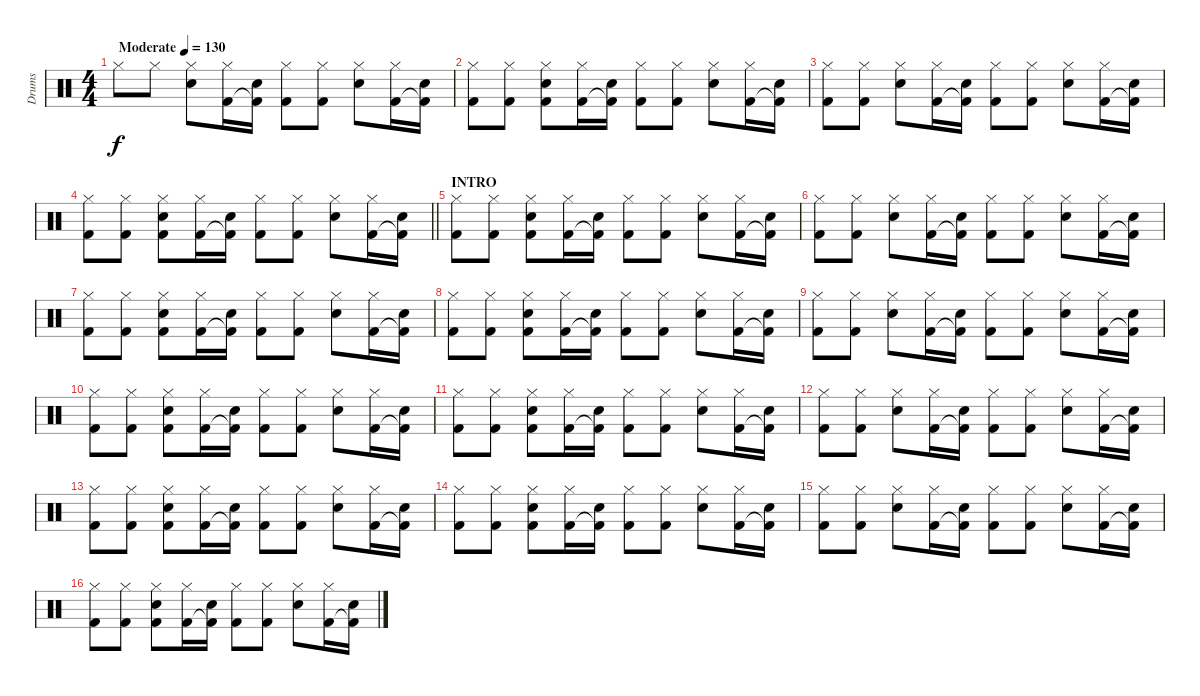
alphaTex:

\track ("Drums" "Drums") {instrument percussion}
\staff {score}
\articulation defaults
\ts (4 4)
\tempo (130 "Moderate")
\clef neutral
\ks c "Hi-Hat (closed)".8{dy f} "Hi-Hat (closed)".8
("Electric Snare (hit)" "Hi-Hat (closed)").8 ("Kick (hit) 2" "Hi-Hat (closed)").16 ("Kick (hit) 2"{t} "Electric Snare (hit)").16 ("Kick (hit) 2" "Hi-Hat (closed)").8 ("Kick (hit) 2" "Hi-Hat (closed)").8 ("Electric Snare (hit)" "Hi-Hat (closed)").8 ("Kick (hit) 2" "Hi-Hat (closed)").16 ("Kick (hit) 2"{t} "Electric Snare (hit)").16 |
("Kick (hit) 2" "Hi-Hat (closed)").8 ("Kick (hit) 2" "Hi-Hat (closed)").8 ("Kick (hit) 2" "Electric Snare (hit)" "Hi-Hat (closed)").8 ("Kick (hit) 2" "Hi-Hat (closed)").16 ("Kick (hit) 2"{t} "Electric Snare (hit)").16 ("Kick (hit) 2" "Hi-Hat (closed)").8 ("Kick (hit) 2" "Hi-Hat (closed)").8 ("Electric Snare (hit)" "Hi-Hat (closed)").8 ("Kick (hit) 2" "Hi-Hat (closed)").16 ("Kick (hit) 2"{t} "Electric Snare (hit)").16 |
("Kick (hit) 2" "Hi-Hat (closed)").8 ("Kick (hit) 2" "Hi-Hat (closed)").8 ("Electric Snare (hit)" "Hi-Hat (closed)").8 ("Kick (hit) 2" "Hi-Hat (closed)").16 ("Kick (hit) 2"{t} "Electric Snare (hit)").16 ("Kick (hit) 2" "Hi-Hat (closed)").8 ("Kick (hit) 2" "Hi-Hat (closed)").8 ("Electric Snare (hit)" "Hi-Hat (closed)").8 ("Kick (hit) 2" "Hi-Hat (closed)").16 ("Kick (hit) 2"{t} "Electric Snare (hit)").16 |
\barLineRight lightlight
("Kick (hit) 2" "Hi-Hat (closed)").8 ("Kick (hit) 2" "Hi-Hat (closed)").8 ("Kick (hit) 2" "Electric Snare (hit)" "Hi-Hat (closed)").8 ("Kick (hit) 2" "Hi-Hat (closed)").16 ("Kick (hit) 2"{t} "Electric Snare (hit)").16 ("Kick (hit) 2" "Hi-Hat (closed)").8 ("Kick (hit) 2" "Hi-Hat (closed)").8 ("Electric Snare (hit)" "Hi-Hat (closed)").8 ("Kick (hit) 2" "Hi-Hat (closed)").16 ("Kick (hit) 2"{t} "Electric Snare (hit)").16 |
\section ("" "INTRO")
("Kick (hit) 2" "Hi-Hat (closed)").8 ("Kick (hit) 2" "Hi-Hat (closed)").8 ("Kick (hit) 2" "Electric Snare (hit)" "Hi-Hat (closed)").8 ("Kick (hit) 2" "Hi-Hat (closed)").16 ("Kick (hit) 2"{t} "Electric Snare (hit)").16 ("Kick (hit) 2" "Hi-Hat (closed)").8 ("Kick (hit) 2" "Hi-Hat (closed)").8 ("Electric Snare (hit)" "Hi-Hat (closed)").8 ("Kick (hit) 2" "Hi-Hat (closed)").16 ("Kick (hit) 2"{t} "Electric Snare (hit)").16 |
("Kick (hit) 2" "Hi-Hat (closed)").8 ("Kick (hit) 2" "Hi-Hat (closed)").8 ("Electric Snare (hit)" "Hi-Hat (closed)").8 ("Kick (hit) 2" "Hi-Hat (closed)").16 ("Kick (hit) 2"{t} "Electric Snare (hit)").16 ("Kick (hit) 2" "Hi-Hat (closed)").8 ("Kick (hit) 2" "Hi-Hat (closed)").8 ("Electric Snare (hit)" "Hi-Hat (closed)").8 ("Kick (hit) 2" "Hi-Hat (closed)").16 ("Kick (hit) 2"{t} "Electric Snare (hit)").16 |
("Kick (hit) 2" "Hi-Hat (closed)").8 ("Kick (hit) 2" "Hi-Hat (closed)").8 ("Kick (hit) 2" "Electric Snare (hit)" "Hi-Hat (closed)").8 ("Kick (hit) 2" "Hi-Hat (closed)").16 ("Kick (hit) 2"{t} "Electric Snare (hit)").16 ("Kick (hit) 2" "Hi-Hat (closed)").8 ("Kick (hit) 2" "Hi-Hat (closed)").8 ("Electric Snare (hit)" "Hi-Hat (closed)").8 ("Kick (hit) 2" "Hi-Hat (closed)").16 ("Kick (hit) 2"{t} "Electric Snare (hit)").16 |
("Kick (hit) 2" "Hi-Hat (closed)").8 ("Kick (hit) 2" "Hi-Hat (closed)").8 ("Kick (hit) 2" "Electric Snare (hit)" "Hi-Hat (closed)").8 ("Kick (hit) 2" "Hi-Hat (closed)").16 ("Kick (hit) 2"{t} "Electric Snare (hit)").16 ("Kick (hit) 2" "Hi-Hat (closed)").8 ("Kick (hit) 2" "Hi-Hat (closed)").8 ("Electric Snare (hit)" "Hi-Hat (closed)").8 ("Kick (hit) 2" "Hi-Hat (closed)").16 ("Kick (hit) 2"{t} "Electric Snare (hit)").16 |
("Kick (hit) 2" "Hi-Hat (closed)").8 ("Kick (hit) 2" "Hi-Hat (closed)").8 ("Electric Snare (hit)" "Hi-Hat (closed)").8 ("Kick (hit) 2" "Hi-Hat (closed)").16 ("Kick (hit) 2"{t} "Electric Snare (hit)").16 ("Kick (hit) 2" "Hi-Hat (closed)").8 ("Kick (hit) 2" "Hi-Hat (closed)").8 ("Electric Snare (hit)" "Hi-Hat (closed)").8 ("Kick (hit) 2" "Hi-Hat (closed)").16 ("Kick (hit) 2"{t} "Electric Snare (hit)").16 |
("Kick (hit) 2" "Hi-Hat (closed)").8 ("Kick (hit) 2" "Hi-Hat (closed)").8 ("Kick (hit) 2" "Electric Snare (hit)" "Hi-Hat (closed)").8 ("Kick (hit) 2" "Hi-Hat (closed)").16 ("Kick (hit) 2"{t} "Electric Snare (hit)").16 ("Kick (hit) 2" "Hi-Hat (closed)").8 ("Kick (hit) 2" "Hi-Hat (closed)").8 ("Electric Snare (hit)" "Hi-Hat (closed)").8 ("Kick (hit) 2" "Hi-Hat (closed)").16 ("Kick (hit) 2"{t} "Electric Snare (hit)").16 |
("Kick (hit) 2" "Hi-Hat (closed)").8 ("Kick (hit) 2" "Hi-Hat (closed)").8 ("Kick (hit) 2" "Electric Snare (hit)" "Hi-Hat (closed)").8 ("Kick (hit) 2" "Hi-Hat (closed)").16 ("Kick (hit) 2"{t} "Electric Snare (hit)").16 ("Kick (hit) 2" "Hi-Hat (closed)").8 ("Kick (hit) 2" "Hi-Hat (closed)").8 ("Electric Snare (hit)" "Hi-Hat (closed)").8 ("Kick (hit) 2" "Hi-Hat (closed)").16 ("Kick (hit) 2"{t} "Electric Snare (hit)").16 |
("Kick (hit) 2" "Hi-Hat (closed)").8 ("Kick (hit) 2" "Hi-Hat (closed)").8 ("Electric Snare (hit)" "Hi-Hat (closed)").8 ("Kick (hit) 2" "Hi-Hat (closed)").16 ("Kick (hit) 2"{t} "Electric Snare (hit)").16 ("Kick (hit) 2" "Hi-Hat (closed)").8 ("Kick (hit) 2" "Hi-Hat (closed)").8 ("Electric Snare (hit)" "Hi-Hat (closed)").8 ("Kick (hit) 2" "Hi-Hat (closed)").16 ("Kick (hit) 2"{t} "Electric Snare (hit)").16 |
("Kick (hit) 2" "Hi-Hat (closed)").8 ("Kick (hit) 2" "Hi-Hat (closed)").8 ("Kick (hit) 2" "Electric Snare (hit)" "Hi-Hat (closed)").8 ("Kick (hit) 2" "Hi-Hat (closed)").16 ("Kick (hit) 2"{t} "Electric Snare (hit)").16 ("Kick (hit) 2" "Hi-Hat (closed)").8 ("Kick (hit) 2" "Hi-Hat (closed)").8 ("Electric Snare (hit)" "Hi-Hat (closed)").8 ("Kick (hit) 2" "Hi-Hat (closed)").16 ("Kick (hit) 2"{t} "Electric Snare (hit)").16 |
("Kick (hit) 2" "Hi-Hat (closed)").8 ("Kick (hit) 2" "Hi-Hat (closed)").8 ("Kick (hit) 2" "Electric Snare (hit)" "Hi-Hat (closed)").8 ("Kick (hit) 2" "Hi-Hat (closed)").16 ("Kick (hit) 2"{t} "Electric Snare (hit)").16 ("Kick (hit) 2" "Hi-Hat (closed)").8 ("Kick (hit) 2" "Hi-Hat (closed)").8 ("Electric Snare (hit)" "Hi-Hat (closed)").8 ("Kick (hit) 2" "Hi-Hat (closed)").16 ("Kick (hit) 2"{t} "Electric Snare (hit)").16 |
("Kick (hit) 2" "Hi-Hat (closed)").8 ("Kick (hit) 2" "Hi-Hat (closed)").8 ("Electric Snare (hit)" "Hi-Hat (closed)").8 ("Kick (hit) 2" "Hi-Hat (closed)").16 ("Kick (hit) 2"{t} "Electric Snare (hit)").16 ("Kick (hit) 2" "Hi-Hat (closed)").8 ("Kick (hit) 2" "Hi-Hat (closed)").8 ("Electric Snare (hit)" "Hi-Hat (closed)").8 ("Kick (hit) 2" "Hi-Hat (closed)").16 ("Kick (hit) 2"{t} "Electric Snare (hit)").16 |
("Kick (hit) 2" "Hi-Hat (closed)").8 ("Kick (hit) 2" "Hi-Hat (closed)").8 ("Kick (hit) 2" "Electric Snare (hit)" "Hi-Hat (closed)").8 ("Kick (hit) 2" "Hi-Hat (closed)").16 ("Kick (hit) 2"{t} "Electric Snare (hit)").16 ("Kick (hit) 2" "Hi-Hat (closed)").8 ("Kick (hit) 2" "Hi-Hat (closed)").8 ("Electric Snare (hit)" "Hi-Hat (closed)").8 ("Kick (hit) 2" "Hi-Hat (closed)").16 ("Kick (hit) 2"{t} "Electric Snare (hit)").16
